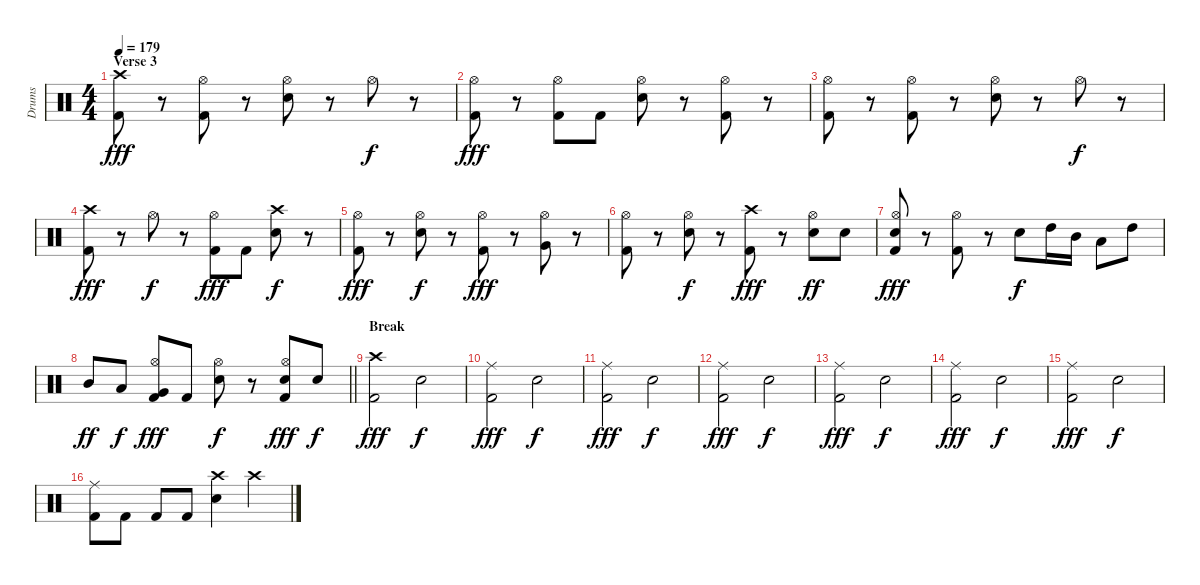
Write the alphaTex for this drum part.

\track ("Drums" "Drums") {instrument percussion}
\staff {score}
\articulation defaults
\ts (4 4)
\section ("" "Verse 3")
\tempo 179
\clef neutral
\ks c
("Crash high (hit)" "Kick (hit) 2").8{dy fff} r.8 ("Hi-Hat (open)" "Kick (hit) 2").8 r.8 ("Hi-Hat (open)" "Snare (hit) 2").8 r.8 "Hi-Hat (open)".8{dy f} r.8 |
("Hi-Hat (open)" "Kick (hit) 2").8{dy fff} r.8 ("Hi-Hat (open)" "Kick (hit) 2").8 "Kick (hit) 2".8 ("Hi-Hat (open)" "Snare (hit) 2").8 r.8 ("Hi-Hat (open)" "Kick (hit) 2").8 r.8 |
("Hi-Hat (open)" "Kick (hit) 2").8 r.8 ("Hi-Hat (open)" "Kick (hit) 2").8 r.8 ("Hi-Hat (open)" "Snare (hit) 2").8 r.8 "Hi-Hat (open)".8{dy f} r.8 |
("Crash high (hit)" "Kick (hit) 2").8{dy fff} r.8 "Hi-Hat (open)".8{dy f} r.8 ("Hi-Hat (open)" "Kick (hit) 2").8{dy fff} "Kick (hit) 2".8 ("Crash high (hit)" "Snare (hit) 2").8{dy f} r.8 |
("Hi-Hat (open)" "Kick (hit) 2").8{dy fff} r.8 ("Hi-Hat (open)" "Snare (hit) 2").8{dy f} r.8 ("Hi-Hat (open)" "Kick (hit) 2").8{dy fff} r.8 ("Hi-Hat (open)" "Very Low Tom (hit)").8 r.8 |
("Hi-Hat (open)" "Kick (hit) 2").8 r.8 ("Hi-Hat (open)" "Snare (hit) 2").8{dy f} r.8 ("Crash high (hit)" "Kick (hit) 2").8{dy fff} r.8 ("Hi-Hat (open)" "Snare (hit) 2").8{dy ff} "Snare (hit) 2".8 |
("Hi-Hat (open)" "Snare (hit) 2" "Kick (hit) 2").8{dy fff} r.8 ("Hi-Hat (open)" "Kick (hit) 2").8 r.8 "Snare (hit) 2".8{dy f} "High Tom (hit)".16 "Mid Tom (hit)".16 "Low Tom (hit)".8 "High Tom (hit)".8 |
\barLineRight lightlight "Mid Tom (hit)".8{dy ff} "Low Tom (hit)".8{dy f}
("Hi-Hat (open)" "Very Low Tom (hit)" "Kick (hit) 2").8{dy fff} "Kick (hit) 2".8 ("Hi-Hat (open)" "Snare (hit) 2").8{dy f} r.8 ("Hi-Hat (open)" "Snare (hit) 2" "Kick (hit) 2").8{dy fff} "Snare (hit) 2".8{dy f} |
\section ("" "Break")
("Crash high (hit)" "Kick (hit) 2").2{dy fff} "Snare (hit) 2".2{dy f} |
("Ride (middle)" "Kick (hit) 2").2{dy fff} "Snare (hit) 2".2{dy f} |
("Ride (middle)" "Kick (hit) 2").2{dy fff} "Snare (hit) 2".2{dy f} |
("Ride (middle)" "Kick (hit) 2").2{dy fff} "Snare (hit) 2".2{dy f} |
("Ride (middle)" "Kick (hit) 2").2{dy fff} "Snare (hit) 2".2{dy f} |
("Ride (middle)" "Kick (hit) 2").2{dy fff} "Snare (hit) 2".2{dy f} |
("Ride (middle)" "Kick (hit) 2").2{dy fff} "Snare (hit) 2".2{dy f} |
("Ride (middle)" "Kick (hit) 2").8 "Kick (hit) 2".8 "Kick (hit) 2".8 "Kick (hit) 2".8 ("Crash high (hit)" "Snare (hit) 2").4 "Crash high (hit)".4
